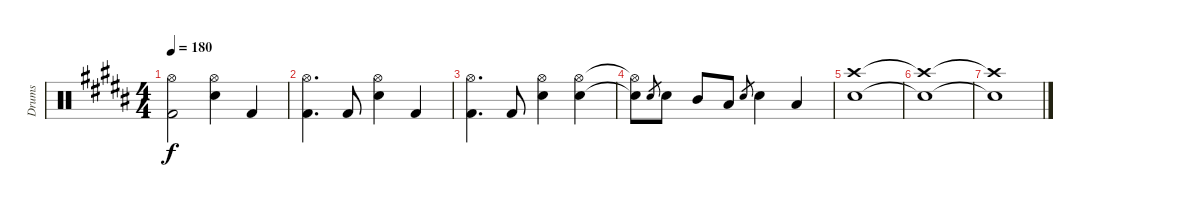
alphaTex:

\track ("Drums" "Drums") {instrument percussion}
\staff {score}
\articulation defaults
\ts (4 4)
\tempo 180
\clef neutral
\ks g#minor
("Kick (hit) 2" "Hi-Hat (open)").2{dy f} ("Hi-Hat (open)" "Snare (hit) 2").4 "Kick (hit) 2".4 |
("Kick (hit) 2" "Hi-Hat (open)").4{d} "Kick (hit) 2".8 ("Hi-Hat (open)" "Snare (hit) 2").4 "Kick (hit) 2".4 |
("Kick (hit) 2" "Hi-Hat (open)").4{d} "Kick (hit) 2".8 ("Hi-Hat (open)" "Snare (hit) 2").4 ("Hi-Hat (open)" "Snare (hit) 2").4 |
("Hi-Hat (open)"{t} "Snare (hit) 2"{t}).8 "Snare (hit) 2".8{gr} "Snare (hit) 2".8 "Mid Tom (hit)".8 "Low Tom (hit)".8 "Snare (hit) 2".8{gr} "Snare (hit) 2".4 "Low Tom (hit)".4 |
("Crash high (hit)" "Snare (hit) 2").1 |
("Crash high (hit)"{t} "Snare (hit) 2"{t}).1 |
("Crash high (hit)"{t} "Snare (hit) 2"{t}).1
